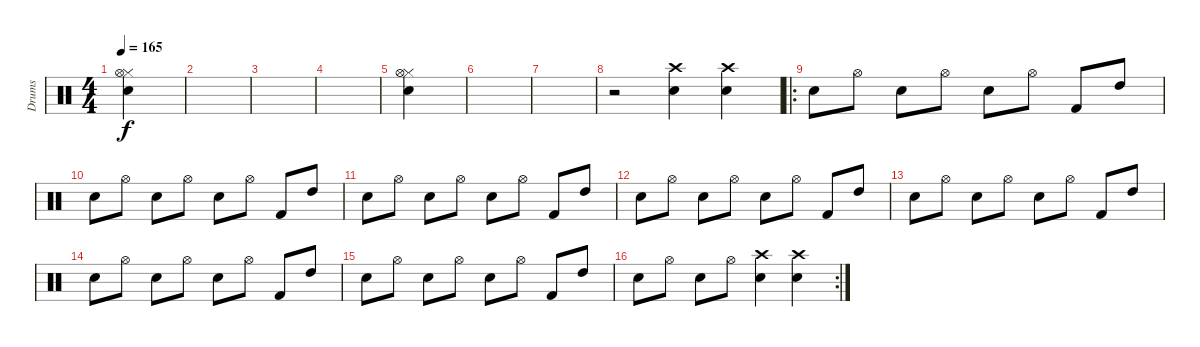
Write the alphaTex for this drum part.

\track ("Drums" "Drums") {instrument percussion}
\staff {score}
\articulation defaults
\ts (4 4)
\tempo 165
\clef neutral
\ks c
("Snare (hit) 2" "Hi-Hat (closed)" "Hi-Hat (open)").4{dy f} |
|
|
|
("Snare (hit) 2" "Hi-Hat (closed)" "Hi-Hat (open)").4 |
|
|
r.2 ("Electric Snare (hit)" "Crash high (hit)").4 ("Electric Snare (hit)" "Crash high (hit)").4 |
\ro "Snare (hit) 2".8 "Hi-Hat (open)".8 "Snare (hit) 2".8 "Hi-Hat (open)".8 "Snare (hit) 2".8 "Hi-Hat (open)".8 "Kick (hit) 2".8 "High Tom (hit)".8
|
"Snare (hit) 2".8 "Hi-Hat (open)".8 "Snare (hit) 2".8 "Hi-Hat (open)".8 "Snare (hit) 2".8 "Hi-Hat (open)".8 "Kick (hit) 2".8 "High Tom (hit)".8 |
"Snare (hit) 2".8 "Hi-Hat (open)".8 "Snare (hit) 2".8 "Hi-Hat (open)".8 "Snare (hit) 2".8 "Hi-Hat (open)".8 "Kick (hit) 2".8 "High Tom (hit)".8 |
"Snare (hit) 2".8 "Hi-Hat (open)".8 "Snare (hit) 2".8 "Hi-Hat (open)".8 "Snare (hit) 2".8 "Hi-Hat (open)".8 "Kick (hit) 2".8 "High Tom (hit)".8 |
"Snare (hit) 2".8 "Hi-Hat (open)".8 "Snare (hit) 2".8 "Hi-Hat (open)".8 "Snare (hit) 2".8 "Hi-Hat (open)".8 "Kick (hit) 2".8 "High Tom (hit)".8 |
"Snare (hit) 2".8 "Hi-Hat (open)".8 "Snare (hit) 2".8 "Hi-Hat (open)".8 "Snare (hit) 2".8 "Hi-Hat (open)".8 "Kick (hit) 2".8 "High Tom (hit)".8 |
"Snare (hit) 2".8 "Hi-Hat (open)".8 "Snare (hit) 2".8 "Hi-Hat (open)".8 "Snare (hit) 2".8 "Hi-Hat (open)".8 "Kick (hit) 2".8 "High Tom (hit)".8 |
\rc 2 "Snare (hit) 2".8 "Hi-Hat (open)".8 "Snare (hit) 2".8 "Hi-Hat (open)".8
("Electric Snare (hit)" "Crash high (hit)").4 ("Electric Snare (hit)" "Crash high (hit)").4
